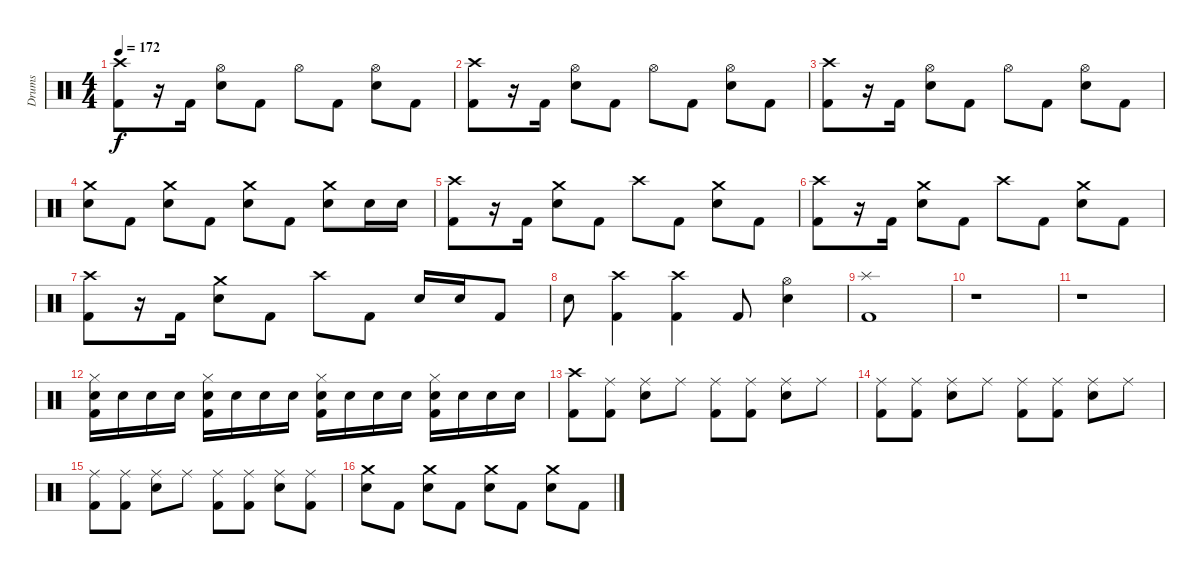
\track ("Drums" "Drums") {instrument percussion}
\staff {score}
\articulation defaults
\ts (4 4)
\tempo 172
\clef neutral
\ks c
("Crash high (hit)" "Kick (hit) 2").8{dy f} r.16 "Kick (hit) 2".16 ("Hi-Hat (open)" "Snare (hit) 2").8 "Kick (hit) 2".8 "Hi-Hat (open)".8 "Kick (hit) 2".8 ("Hi-Hat (open)" "Snare (hit) 2").8 "Kick (hit) 2".8 |
("Crash high (hit)" "Kick (hit) 2").8 r.16 "Kick (hit) 2".16 ("Hi-Hat (open)" "Snare (hit) 2").8 "Kick (hit) 2".8 "Hi-Hat (open)".8 "Kick (hit) 2".8 ("Hi-Hat (open)" "Snare (hit) 2").8 "Kick (hit) 2".8 |
("Crash high (hit)" "Kick (hit) 2").8 r.16 "Kick (hit) 2".16 ("Hi-Hat (open)" "Snare (hit) 2").8 "Kick (hit) 2".8 "Hi-Hat (open)".8 "Kick (hit) 2".8 ("Hi-Hat (open)" "Snare (hit) 2").8 "Kick (hit) 2".8 |
("Crash medium (hit)" "Snare (hit) 2").8 "Kick (hit) 2".8 ("Crash medium (hit)" "Snare (hit) 2").8 "Kick (hit) 2".8 ("Crash medium (hit)" "Snare (hit) 2").8 "Kick (hit) 2".8 ("Crash medium (hit)" "Snare (hit) 2").8 "Snare (hit) 2".16 "Snare (hit) 2".16 |
("Crash high (hit)" "Kick (hit) 2").8 r.16 "Kick (hit) 2".16 ("Crash medium (hit)" "Snare (hit) 2").8 "Kick (hit) 2".8 "Crash high (hit)".8 "Kick (hit) 2".8 ("Crash medium (hit)" "Snare (hit) 2").8 "Kick (hit) 2".8 |
("Crash high (hit)" "Kick (hit) 2").8 r.16 "Kick (hit) 2".16 ("Crash medium (hit)" "Snare (hit) 2").8 "Kick (hit) 2".8 "Crash high (hit)".8 "Kick (hit) 2".8 ("Crash medium (hit)" "Snare (hit) 2").8 "Kick (hit) 2".8 |
("Crash high (hit)" "Kick (hit) 2").8 r.16 "Kick (hit) 2".16 ("Crash medium (hit)" "Snare (hit) 2").8 "Kick (hit) 2".8 "Crash high (hit)".8 "Kick (hit) 2".8 "Snare (hit) 2".16 "Snare (hit) 2".16 "Kick (hit) 2".8 |
"Snare (hit) 2".8 ("Crash high (hit)" "Kick (hit) 2").4 ("Crash high (hit)" "Kick (hit) 2").4 "Kick (hit) 2".8 ("Hi-Hat (open)" "Snare (hit) 2").4 |
("Splash (hit)" "Kick (hit) 2").1 |
r.1 |
r.1 |
("Hi-Hat (closed)" "Snare (hit) 2" "Kick (hit) 2").16 "Snare (hit) 2".16 "Snare (hit) 2".16 "Snare (hit) 2".16 ("Hi-Hat (closed)" "Snare (hit) 2" "Kick (hit) 2").16 "Snare (hit) 2".16 "Snare (hit) 2".16 "Snare (hit) 2".16 ("Hi-Hat (closed)" "Snare (hit) 2" "Kick (hit) 2").16 "Snare (hit) 2".16 "Snare (hit) 2".16 "Snare (hit) 2".16 ("Hi-Hat (closed)" "Snare (hit) 2" "Kick (hit) 2").16 "Snare (hit) 2".16 "Snare (hit) 2".16 "Snare (hit) 2".16 |
("Crash high (hit)" "Kick (hit) 2").8 ("Ride (middle)" "Kick (hit) 2").8 ("Ride (middle)" "Snare (hit) 2").8 "Ride (middle)".8 ("Ride (middle)" "Kick (hit) 2").8 ("Ride (middle)" "Kick (hit) 2").8 ("Ride (middle)" "Snare (hit) 2").8 "Ride (middle)".8 |
("Ride (middle)" "Kick (hit) 2").8 ("Ride (middle)" "Kick (hit) 2").8 ("Ride (middle)" "Snare (hit) 2").8 "Ride (middle)".8 ("Ride (middle)" "Kick (hit) 2").8 ("Ride (middle)" "Kick (hit) 2").8 ("Ride (middle)" "Snare (hit) 2").8 "Ride (middle)".8 |
("Ride (middle)" "Kick (hit) 2").8 ("Ride (middle)" "Kick (hit) 2").8 ("Ride (middle)" "Snare (hit) 2").8 "Ride (middle)".8 ("Ride (middle)" "Kick (hit) 2").8 ("Ride (middle)" "Kick (hit) 2").8 ("Ride (middle)" "Snare (hit) 2").8 ("Ride (middle)" "Kick (hit) 2").8 |
("Crash medium (hit)" "Snare (hit) 2").8 "Kick (hit) 2".8 ("Crash medium (hit)" "Snare (hit) 2").8 "Kick (hit) 2".8 ("Crash medium (hit)" "Snare (hit) 2").8 "Kick (hit) 2".8 ("Crash medium (hit)" "Snare (hit) 2").8 "Kick (hit) 2".8
